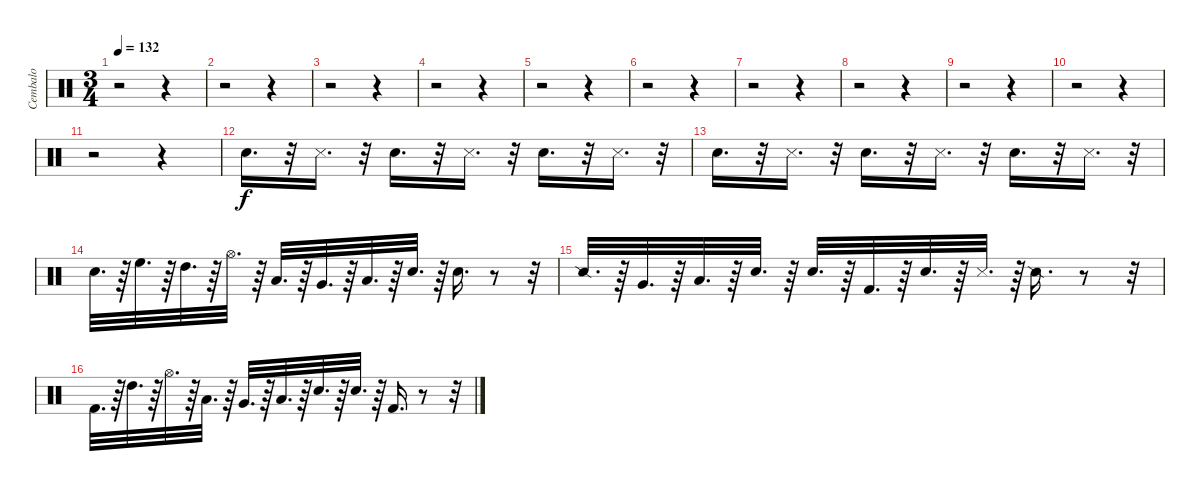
\track ("Cembalo" "Cembalo") {instrument percussion}
\staff {score}
\articulation defaults
\ts (3 4)
\tempo 132
\clef neutral
\ks c
r.2{dy f} r.4 |
r.2 r.4 |
r.2 r.4 |
r.2 r.4 |
r.2 r.4 |
r.2 r.4 |
r.2 r.4 |
r.2 r.4 |
r.2 r.4 |
r.2 r.4 |
r.2 r.4 |
"Snare (hit) 2".16{d} r.32 "Metronome (hit)".16{d} r.32 "Snare (hit) 2".16{d} r.32 "Metronome (hit)".16{d} r.32 "Snare (hit) 2".16{d} r.32 "Metronome (hit)".16{d} r.32 |
"Snare (hit) 2".16{d} r.32 "Metronome (hit)".16{d} r.32 "Snare (hit) 2".16{d} r.32 "Metronome (hit)".16{d} r.32 "Snare (hit) 2".16{d} r.32 "Metronome (hit)".16{d} r.32 |
"Snare (hit) 2".32{d} r.64 "High Floor Tom (hit)".32{d} r.64 "High Tom (hit)".32{d} r.64 "Hi-Hat (open)".32{d} r.64 "Low Tom (hit)".32{d} r.64 "Very Low Tom (hit)".32{d} r.64 "Low Floor Tom (hit)".32{d} r.64 "Electric Snare (hit)".32{d} r.64 "Snare (hit) 2".16{d} r.8 r.32 |
"Snare (side stick) 2".32{d} r.64 "Very Low Tom (hit)".32{d} r.64 "Low Floor Tom (hit)".32{d} r.64 "Hand Clap (hit)".32{d} r.64 "Snare (hit) 2".32{d} r.64 "Kick (hit) 2".32{d} r.64 "Metronome (bell)".32{d} r.64 "Metronome (hit)".32{d} r.64 "Snare (side stick) 2".16{d} r.8 r.32 |
"Kick (hit) 2".32{d} r.64 "High Tom (hit)".32{d} r.64 "Hi-Hat (open)".32{d} r.64 "Low Tom (hit)".32{d} r.64 "Very Low Tom (hit)".32{d} r.64 "Low Floor Tom (hit)".32{d} r.64 "Electric Snare (hit)".32{d} r.64 "Snare (hit) 2".32{d} r.64 "Kick (hit) 2".16{d} r.8 r.32
